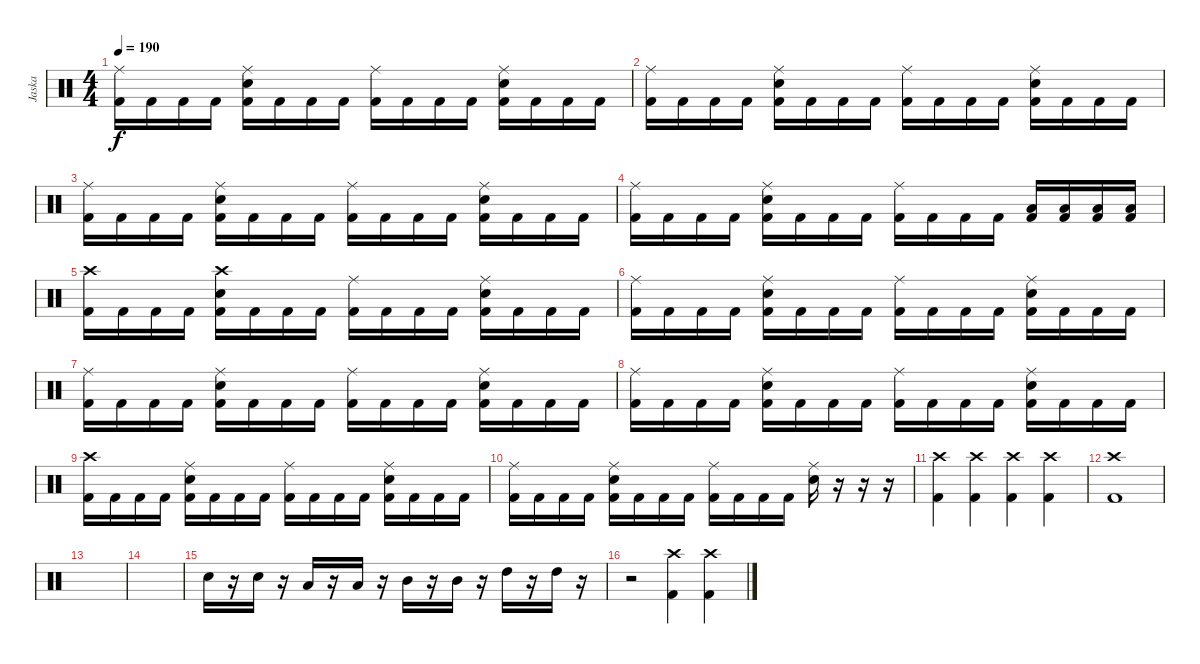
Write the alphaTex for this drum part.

\track ("Jaska" "Jaska") {instrument percussion}
\staff {score}
\articulation defaults
\ts (4 4)
\tempo 190
\clef neutral
\ks c
("Ride (middle)" "Kick (hit) 2").16{dy f} "Kick (hit) 2".16 "Kick (hit) 2".16 "Kick (hit) 2".16 ("Ride (middle)" "Electric Snare (hit)" "Kick (hit) 2").16 "Kick (hit) 2".16 "Kick (hit) 2".16 "Kick (hit) 2".16 ("Ride (middle)" "Kick (hit) 2").16 "Kick (hit) 2".16 "Kick (hit) 2".16 "Kick (hit) 2".16 ("Ride (middle)" "Electric Snare (hit)" "Kick (hit) 2").16 "Kick (hit) 2".16 "Kick (hit) 2".16 "Kick (hit) 2".16 |
("Ride (middle)" "Kick (hit) 2").16 "Kick (hit) 2".16 "Kick (hit) 2".16 "Kick (hit) 2".16 ("Ride (middle)" "Electric Snare (hit)" "Kick (hit) 2").16 "Kick (hit) 2".16 "Kick (hit) 2".16 "Kick (hit) 2".16 ("Ride (middle)" "Kick (hit) 2").16 "Kick (hit) 2".16 "Kick (hit) 2".16 "Kick (hit) 2".16 ("Ride (middle)" "Electric Snare (hit)" "Kick (hit) 2").16 "Kick (hit) 2".16 "Kick (hit) 2".16 "Kick (hit) 2".16 |
("Ride (middle)" "Kick (hit) 2").16 "Kick (hit) 2".16 "Kick (hit) 2".16 "Kick (hit) 2".16 ("Ride (middle)" "Electric Snare (hit)" "Kick (hit) 2").16 "Kick (hit) 2".16 "Kick (hit) 2".16 "Kick (hit) 2".16 ("Ride (middle)" "Kick (hit) 2").16 "Kick (hit) 2".16 "Kick (hit) 2".16 "Kick (hit) 2".16 ("Ride (middle)" "Electric Snare (hit)" "Kick (hit) 2").16 "Kick (hit) 2".16 "Kick (hit) 2".16 "Kick (hit) 2".16 |
("Ride (middle)" "Kick (hit) 2").16 "Kick (hit) 2".16 "Kick (hit) 2".16 "Kick (hit) 2".16 ("Ride (middle)" "Electric Snare (hit)" "Kick (hit) 2").16 "Kick (hit) 2".16 "Kick (hit) 2".16 "Kick (hit) 2".16 ("Ride (middle)" "Kick (hit) 2").16 "Kick (hit) 2".16 "Kick (hit) 2".16 "Kick (hit) 2".16 ("Low Tom (hit)" "Kick (hit) 2").16 ("Low Tom (hit)" "Kick (hit) 2").16 ("Low Tom (hit)" "Kick (hit) 2").16 ("Low Tom (hit)" "Kick (hit) 2").16 |
("Crash high (hit)" "Kick (hit) 2").16 "Kick (hit) 2".16 "Kick (hit) 2".16 "Kick (hit) 2".16 ("Crash high (hit)" "Electric Snare (hit)" "Kick (hit) 2").16 "Kick (hit) 2".16 "Kick (hit) 2".16 "Kick (hit) 2".16 ("Ride (middle)" "Kick (hit) 2").16 "Kick (hit) 2".16 "Kick (hit) 2".16 "Kick (hit) 2".16 ("Ride (middle)" "Electric Snare (hit)" "Kick (hit) 2").16 "Kick (hit) 2".16 "Kick (hit) 2".16 "Kick (hit) 2".16 |
("Ride (middle)" "Kick (hit) 2").16 "Kick (hit) 2".16 "Kick (hit) 2".16 "Kick (hit) 2".16 ("Ride (middle)" "Electric Snare (hit)" "Kick (hit) 2").16 "Kick (hit) 2".16 "Kick (hit) 2".16 "Kick (hit) 2".16 ("Ride (middle)" "Kick (hit) 2").16 "Kick (hit) 2".16 "Kick (hit) 2".16 "Kick (hit) 2".16 ("Ride (middle)" "Electric Snare (hit)" "Kick (hit) 2").16 "Kick (hit) 2".16 "Kick (hit) 2".16 "Kick (hit) 2".16 |
("Ride (middle)" "Kick (hit) 2").16 "Kick (hit) 2".16 "Kick (hit) 2".16 "Kick (hit) 2".16 ("Ride (middle)" "Electric Snare (hit)" "Kick (hit) 2").16 "Kick (hit) 2".16 "Kick (hit) 2".16 "Kick (hit) 2".16 ("Ride (middle)" "Kick (hit) 2").16 "Kick (hit) 2".16 "Kick (hit) 2".16 "Kick (hit) 2".16 ("Ride (middle)" "Electric Snare (hit)" "Kick (hit) 2").16 "Kick (hit) 2".16 "Kick (hit) 2".16 "Kick (hit) 2".16 |
("Ride (middle)" "Kick (hit) 2").16 "Kick (hit) 2".16 "Kick (hit) 2".16 "Kick (hit) 2".16 ("Ride (middle)" "Electric Snare (hit)" "Kick (hit) 2").16 "Kick (hit) 2".16 "Kick (hit) 2".16 "Kick (hit) 2".16 ("Ride (middle)" "Kick (hit) 2").16 "Kick (hit) 2".16 "Kick (hit) 2".16 "Kick (hit) 2".16 ("Ride (middle)" "Electric Snare (hit)" "Kick (hit) 2").16 "Kick (hit) 2".16 "Kick (hit) 2".16 "Kick (hit) 2".16 |
("Crash high (hit)" "Kick (hit) 2").16 "Kick (hit) 2".16 "Kick (hit) 2".16 "Kick (hit) 2".16 ("Ride (middle)" "Electric Snare (hit)" "Kick (hit) 2").16 "Kick (hit) 2".16 "Kick (hit) 2".16 "Kick (hit) 2".16 ("Ride (middle)" "Kick (hit) 2").16 "Kick (hit) 2".16 "Kick (hit) 2".16 "Kick (hit) 2".16 ("Ride (middle)" "Electric Snare (hit)" "Kick (hit) 2").16 "Kick (hit) 2".16 "Kick (hit) 2".16 "Kick (hit) 2".16 |
("Ride (middle)" "Kick (hit) 2").16 "Kick (hit) 2".16 "Kick (hit) 2".16 "Kick (hit) 2".16 ("Ride (middle)" "Electric Snare (hit)" "Kick (hit) 2").16 "Kick (hit) 2".16 "Kick (hit) 2".16 "Kick (hit) 2".16 ("Ride (middle)" "Kick (hit) 2").16 "Kick (hit) 2".16 "Kick (hit) 2".16 "Kick (hit) 2".16 ("Ride (middle)" "Electric Snare (hit)").16 r.16 r.16 r.16 |
("Crash high (hit)" "Kick (hit) 2").4 ("Crash high (hit)" "Kick (hit) 2").4 ("Crash high (hit)" "Kick (hit) 2").4 ("Crash high (hit)" "Kick (hit) 2").4 |
("Crash high (hit)" "Kick (hit) 2").1 |
|
|
"Electric Snare (hit)".16 r.16 "Electric Snare (hit)".16 r.16 "Low Tom (hit)".16 r.16 "Low Tom (hit)".16 r.16 "Mid Tom (hit)".16 r.16 "Mid Tom (hit)".16 r.16 "High Tom (hit)".16 r.16 "High Tom (hit)".16 r.16 |
r.2 ("Crash high (hit)" "Kick (hit) 2").4 ("Crash high (hit)" "Kick (hit) 2").4
